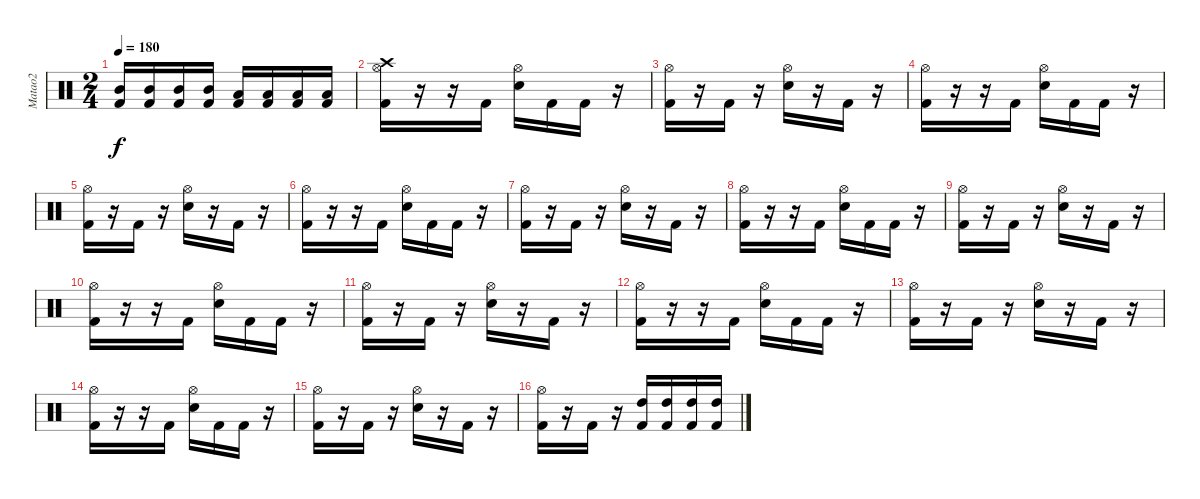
\track ("Matao2" "Matao2") {instrument percussion}
\staff {score}
\articulation defaults
\ts (2 4)
\tempo 180
\clef neutral
\ks c
("Kick (hit) 2" "Mid Tom (hit)").16{dy f} ("Kick (hit) 2" "Mid Tom (hit)").16 ("Kick (hit) 2" "Mid Tom (hit)").16 ("Kick (hit) 2" "Mid Tom (hit)").16 ("Kick (hit) 2" "Low Tom (hit)").16 ("Kick (hit) 2" "Low Tom (hit)").16 ("Kick (hit) 2" "Low Tom (hit)").16 ("Kick (hit) 2" "Low Tom (hit)").16 |
("Kick (hit) 2" "Hi-Hat (open)" "Crash high (hit)").16 r.16 r.16 "Kick (hit) 2".16 ("Electric Snare (hit)" "Hi-Hat (open)").16 "Kick (hit) 2".16 "Kick (hit) 2".16 r.16 |
("Kick (hit) 2" "Hi-Hat (open)").16 r.16 "Kick (hit) 2".16 r.16 ("Electric Snare (hit)" "Hi-Hat (open)").16 r.16 "Kick (hit) 2".16 r.16 |
("Kick (hit) 2" "Hi-Hat (open)").16 r.16 r.16 "Kick (hit) 2".16 ("Electric Snare (hit)" "Hi-Hat (open)").16 "Kick (hit) 2".16 "Kick (hit) 2".16 r.16 |
("Kick (hit) 2" "Hi-Hat (open)").16 r.16 "Kick (hit) 2".16 r.16 ("Electric Snare (hit)" "Hi-Hat (open)").16 r.16 "Kick (hit) 2".16 r.16 |
("Kick (hit) 2" "Hi-Hat (open)").16 r.16 r.16 "Kick (hit) 2".16 ("Electric Snare (hit)" "Hi-Hat (open)").16 "Kick (hit) 2".16 "Kick (hit) 2".16 r.16 |
("Kick (hit) 2" "Hi-Hat (open)").16 r.16 "Kick (hit) 2".16 r.16 ("Electric Snare (hit)" "Hi-Hat (open)").16 r.16 "Kick (hit) 2".16 r.16 |
("Kick (hit) 2" "Hi-Hat (open)").16 r.16 r.16 "Kick (hit) 2".16 ("Electric Snare (hit)" "Hi-Hat (open)").16 "Kick (hit) 2".16 "Kick (hit) 2".16 r.16 |
("Kick (hit) 2" "Hi-Hat (open)").16 r.16 "Kick (hit) 2".16 r.16 ("Electric Snare (hit)" "Hi-Hat (open)").16 r.16 "Kick (hit) 2".16 r.16 |
("Kick (hit) 2" "Hi-Hat (open)").16 r.16 r.16 "Kick (hit) 2".16 ("Electric Snare (hit)" "Hi-Hat (open)").16 "Kick (hit) 2".16 "Kick (hit) 2".16 r.16 |
("Kick (hit) 2" "Hi-Hat (open)").16 r.16 "Kick (hit) 2".16 r.16 ("Electric Snare (hit)" "Hi-Hat (open)").16 r.16 "Kick (hit) 2".16 r.16 |
("Kick (hit) 2" "Hi-Hat (open)").16 r.16 r.16 "Kick (hit) 2".16 ("Electric Snare (hit)" "Hi-Hat (open)").16 "Kick (hit) 2".16 "Kick (hit) 2".16 r.16 |
("Kick (hit) 2" "Hi-Hat (open)").16 r.16 "Kick (hit) 2".16 r.16 ("Electric Snare (hit)" "Hi-Hat (open)").16 r.16 "Kick (hit) 2".16 r.16 |
("Kick (hit) 2" "Hi-Hat (open)").16 r.16 r.16 "Kick (hit) 2".16 ("Electric Snare (hit)" "Hi-Hat (open)").16 "Kick (hit) 2".16 "Kick (hit) 2".16 r.16 |
("Kick (hit) 2" "Hi-Hat (open)").16 r.16 "Kick (hit) 2".16 r.16 ("Electric Snare (hit)" "Hi-Hat (open)").16 r.16 "Kick (hit) 2".16 r.16 |
("Kick (hit) 2" "Hi-Hat (open)").16 r.16 "Kick (hit) 2".16 r.16 ("Kick (hit) 2" "High Tom (hit)").16 ("Kick (hit) 2" "High Tom (hit)").16 ("Kick (hit) 2" "High Tom (hit)").16 ("Kick (hit) 2" "High Tom (hit)").16
